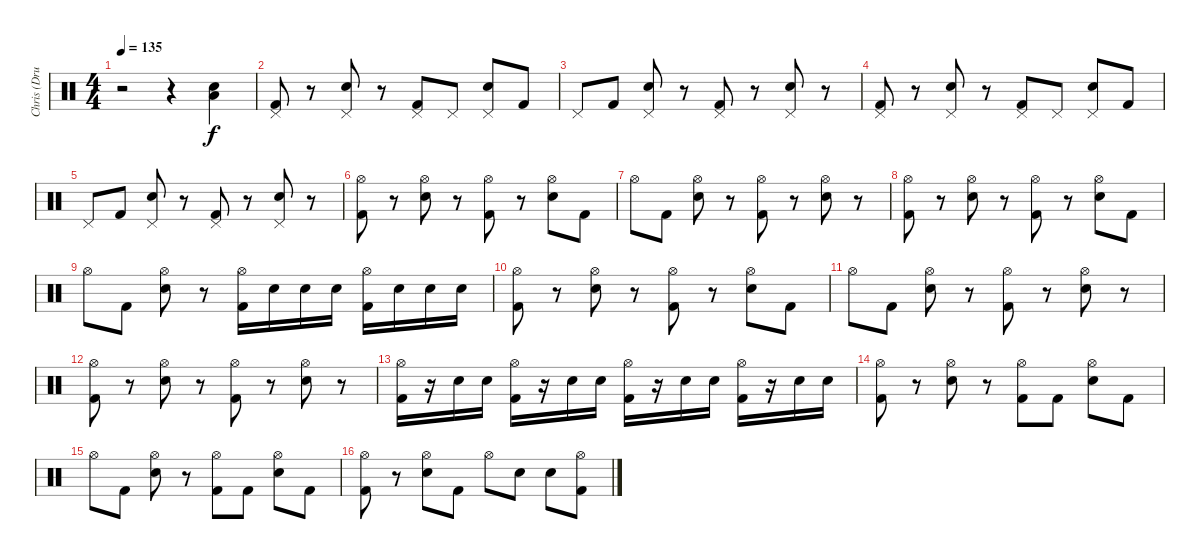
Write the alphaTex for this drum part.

\track ("Chris (Drums)" "Chris (Dru") {instrument percussion}
\staff {score}
\articulation defaults
\ts (4 4)
\tempo 135
\clef neutral
\ks c
r.2{dy mp} r.4 ("Low Floor Tom (hit)" "Snare (hit) 2").4{dy f} |
("Pedal Hi-Hat (hit)" "Kick (hit) 2").8 r.8 ("Pedal Hi-Hat (hit)" "Snare (hit) 2").8 r.8 ("Pedal Hi-Hat (hit)" "Kick (hit) 2").8 "Pedal Hi-Hat (hit)".8 ("Pedal Hi-Hat (hit)" "Snare (hit) 2").8 "Kick (hit) 2".8 |
"Pedal Hi-Hat (hit)".8 "Kick (hit) 2".8 ("Pedal Hi-Hat (hit)" "Snare (hit) 2").8 r.8 ("Pedal Hi-Hat (hit)" "Kick (hit) 2").8 r.8 ("Pedal Hi-Hat (hit)" "Snare (hit) 2").8 r.8 |
("Pedal Hi-Hat (hit)" "Kick (hit) 2").8 r.8 ("Pedal Hi-Hat (hit)" "Snare (hit) 2").8 r.8 ("Pedal Hi-Hat (hit)" "Kick (hit) 2").8 "Pedal Hi-Hat (hit)".8 ("Pedal Hi-Hat (hit)" "Snare (hit) 2").8 "Kick (hit) 2".8 |
"Pedal Hi-Hat (hit)".8 "Kick (hit) 2".8 ("Pedal Hi-Hat (hit)" "Snare (hit) 2").8 r.8 ("Pedal Hi-Hat (hit)" "Kick (hit) 2").8 r.8 ("Pedal Hi-Hat (hit)" "Snare (hit) 2").8 r.8 |
("Hi-Hat (open)" "Kick (hit) 2").8 r.8 ("Hi-Hat (open)" "Snare (hit) 2").8 r.8 ("Hi-Hat (open)" "Kick (hit) 2").8 r.8 ("Hi-Hat (open)" "Snare (hit) 2").8 "Kick (hit) 2".8 |
"Hi-Hat (open)".8 "Kick (hit) 2".8 ("Hi-Hat (open)" "Snare (hit) 2").8 r.8 ("Hi-Hat (open)" "Kick (hit) 2").8 r.8 ("Hi-Hat (open)" "Snare (hit) 2").8 r.8 |
("Hi-Hat (open)" "Kick (hit) 2").8 r.8 ("Hi-Hat (open)" "Snare (hit) 2").8 r.8 ("Hi-Hat (open)" "Kick (hit) 2").8 r.8 ("Hi-Hat (open)" "Snare (hit) 2").8 "Kick (hit) 2".8 |
"Hi-Hat (open)".8 "Kick (hit) 2".8 ("Hi-Hat (open)" "Snare (hit) 2").8 r.8 ("Hi-Hat (open)" "Kick (hit) 2").16 "Snare (hit) 2".16 "Snare (hit) 2".16 "Snare (hit) 2".16 ("Hi-Hat (open)" "Kick (hit) 2").16 "Snare (hit) 2".16 "Snare (hit) 2".16 "Snare (hit) 2".16 |
("Hi-Hat (open)" "Kick (hit) 2").8 r.8 ("Hi-Hat (open)" "Snare (hit) 2").8 r.8 ("Hi-Hat (open)" "Kick (hit) 2").8 r.8 ("Hi-Hat (open)" "Snare (hit) 2").8 "Kick (hit) 2".8 |
"Hi-Hat (open)".8 "Kick (hit) 2".8 ("Hi-Hat (open)" "Snare (hit) 2").8 r.8 ("Hi-Hat (open)" "Kick (hit) 2").8 r.8 ("Hi-Hat (open)" "Snare (hit) 2").8 r.8 |
("Hi-Hat (open)" "Kick (hit) 2").8 r.8 ("Hi-Hat (open)" "Snare (hit) 2").8 r.8 ("Hi-Hat (open)" "Kick (hit) 2").8 r.8 ("Hi-Hat (open)" "Snare (hit) 2").8 r.8 |
("Hi-Hat (open)" "Kick (hit) 2").16 r.16 "Snare (hit) 2".16 "Snare (hit) 2".16 ("Hi-Hat (open)" "Kick (hit) 2").16 r.16 "Snare (hit) 2".16 "Snare (hit) 2".16 ("Hi-Hat (open)" "Kick (hit) 2").16 r.16 "Snare (hit) 2".16 "Snare (hit) 2".16 ("Hi-Hat (open)" "Kick (hit) 2").16 r.16 "Snare (hit) 2".16 "Snare (hit) 2".16 |
("Hi-Hat (open)" "Kick (hit) 2").8 r.8 ("Hi-Hat (open)" "Snare (hit) 2").8 r.8 ("Hi-Hat (open)" "Kick (hit) 2").8 "Kick (hit) 2".8 ("Hi-Hat (open)" "Snare (hit) 2").8 "Kick (hit) 2".8 |
"Hi-Hat (open)".8 "Kick (hit) 2".8 ("Hi-Hat (open)" "Snare (hit) 2").8 r.8 ("Hi-Hat (open)" "Kick (hit) 2").8 "Kick (hit) 2".8 ("Hi-Hat (open)" "Snare (hit) 2").8 "Kick (hit) 2".8 |
("Hi-Hat (open)" "Kick (hit) 2").8 r.8 ("Hi-Hat (open)" "Snare (hit) 2").8 "Kick (hit) 2".8 "Hi-Hat (open)".8 "Snare (hit) 2".8 "Snare (hit) 2".8 ("Hi-Hat (open)" "Kick (hit) 2").8
